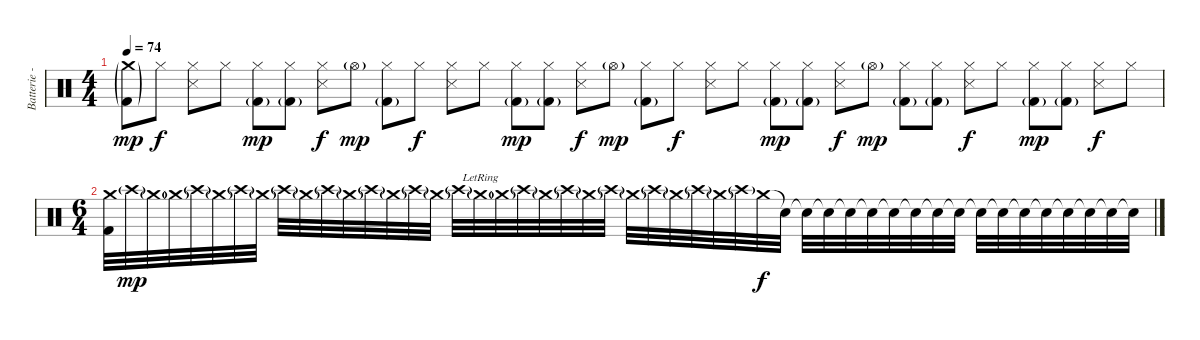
\track ("Batterie - " "Batterie -") {instrument percussion}
\staff {score}
\articulation defaults
\ts (4 4)
\tempo 74
\clef neutral
\ks c
("Kick (hit) 2"{g} "Crash medium (hit)"{g}).8{dy mp} "Hi-Hat (closed)".8{dy f} ("Hi-Hat (closed)" "Snare (side stick) 3").8 "Hi-Hat (closed)".8 ("Kick (hit) 2"{g} "Hi-Hat (closed)").8{dy mp} ("Kick (hit) 2"{g} "Hi-Hat (closed)").8 ("Snare (side stick) 3" "Hi-Hat (closed)").8{dy f} "Hi-Hat (open)"{g}.8{dy mp} ("Kick (hit) 2"{g} "Hi-Hat (closed)").8 "Hi-Hat (closed)".8{dy f} ("Snare (side stick) 3" "Hi-Hat (closed)").8 "Hi-Hat (closed)".8 ("Kick (hit) 2"{g} "Hi-Hat (closed)").8{dy mp} ("Kick (hit) 2"{g} "Hi-Hat (closed)").8 ("Snare (side stick) 3" "Hi-Hat (closed)").8{dy f} "Hi-Hat (open)"{g}.8{dy mp} ("Kick (hit) 2"{g} "Hi-Hat (closed)").8 "Hi-Hat (closed)".8{dy f} ("Snare (side stick) 3" "Hi-Hat (closed)").8 "Hi-Hat (closed)".8 ("Kick (hit) 2"{g} "Hi-Hat (closed)").8{dy mp} ("Kick (hit) 2"{g} "Hi-Hat (closed)").8 ("Snare (side stick) 3" "Hi-Hat (closed)").8{dy f} "Hi-Hat (open)"{g}.8{dy mp} ("Kick (hit) 2"{g} "Hi-Hat (closed)").8 ("Kick (hit) 2"{g} "Hi-Hat (closed)").8 ("Snare (side stick) 3" "Hi-Hat (closed)").8{dy f} "Hi-Hat (closed)".8 ("Kick (hit) 2"{g} "Hi-Hat (closed)").8{dy mp} ("Kick (hit) 2"{g} "Hi-Hat (closed)").8 ("Snare (side stick) 3" "Hi-Hat (closed)").8{dy f} "Hi-Hat (closed)".8 |
\ts (6 4)
("Kick (hit) 2" "Crash medium (hit)").32 "Crash high (hit)"{g}.32{dy mp} "Crash medium (hit)"{g}.32 "Crash medium (hit)"{g}.32 "Crash high (hit)"{g}.32 "Crash medium (hit)"{g}.32 "Crash high (hit)"{g}.32 "Crash medium (hit)"{g}.32 "Crash high (hit)"{g}.32 "Crash medium (hit)"{g}.32 "Crash high (hit)"{g}.32 "Crash medium (hit)"{g}.32 "Crash high (hit)"{g}.32 "Crash medium (hit)"{g}.32 "Crash high (hit)"{g}.32 "Crash medium (hit)"{g}.32 "Crash high (hit)"{g}.32 "Crash medium (hit)"{g lr}.32 "Crash medium (hit)"{g}.32 "Crash high (hit)"{g}.32 "Crash medium (hit)"{g}.32 "Crash high (hit)"{g}.32 "Crash medium (hit)"{g}.32 "Crash high (hit)"{g}.32 "Crash medium (hit)"{g}.32 "Crash high (hit)"{g}.32 "Crash medium (hit)"{g}.32 "Crash high (hit)"{g}.32 "Crash medium (hit)"{g}.32 "Crash high (hit)"{g}.32 "Crash medium (hit)".32{dy f} "Snare (hit)"{t}.32 "Snare (hit)"{t}.32 "Snare (hit)"{t}.32 "Snare (hit)"{t}.32 "Snare (hit)"{t}.32 "Snare (hit)"{t}.32 "Snare (hit)"{t}.32 "Snare (hit)"{t}.32 "Snare (hit)"{t}.32 "Snare (hit)"{t}.32 "Snare (hit)"{t}.32 "Snare (hit)"{t}.32 "Snare (hit)"{t}.32 "Snare (hit)"{t}.32 "Snare (hit)"{t}.32 "Snare (hit)"{t}.32 "Snare (hit)"{t}.32
